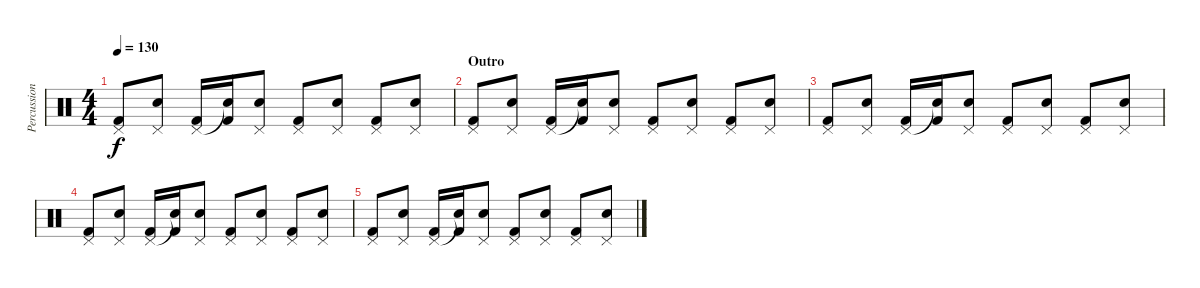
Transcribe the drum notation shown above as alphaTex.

\track ("Percussion" "Percussion") {instrument percussion}
\staff {score}
\articulation defaults
\ts (4 4)
\tempo 130
\clef neutral
\ks c
("Pedal Hi-Hat (hit)" "Kick (hit) 2").8{dy f} ("Pedal Hi-Hat (hit)" "Electric Snare (hit)").8 ("Pedal Hi-Hat (hit)" "Kick (hit) 2").16 ("Snare (hit)"{t} "Kick (hit) 2").16 ("Pedal Hi-Hat (hit)" "Electric Snare (hit)").8 ("Pedal Hi-Hat (hit)" "Kick (hit) 2").8 ("Pedal Hi-Hat (hit)" "Electric Snare (hit)").8 ("Pedal Hi-Hat (hit)" "Kick (hit) 2").8 ("Pedal Hi-Hat (hit)" "Electric Snare (hit)").8 |
\section ("" "Outro")
("Pedal Hi-Hat (hit)" "Kick (hit) 2").8{volume 0} ("Pedal Hi-Hat (hit)" "Electric Snare (hit)").8 ("Pedal Hi-Hat (hit)" "Kick (hit) 2").16 ("Snare (hit)"{t} "Kick (hit) 2").16 ("Pedal Hi-Hat (hit)" "Electric Snare (hit)").8 ("Pedal Hi-Hat (hit)" "Kick (hit) 2").8 ("Pedal Hi-Hat (hit)" "Electric Snare (hit)").8 ("Pedal Hi-Hat (hit)" "Kick (hit) 2").8 ("Pedal Hi-Hat (hit)" "Electric Snare (hit)").8 |
("Pedal Hi-Hat (hit)" "Kick (hit) 2").8 ("Pedal Hi-Hat (hit)" "Electric Snare (hit)").8 ("Pedal Hi-Hat (hit)" "Kick (hit) 2").16 ("Snare (hit)"{t} "Kick (hit) 2").16 ("Pedal Hi-Hat (hit)" "Electric Snare (hit)").8 ("Pedal Hi-Hat (hit)" "Kick (hit) 2").8 ("Pedal Hi-Hat (hit)" "Electric Snare (hit)").8 ("Pedal Hi-Hat (hit)" "Kick (hit) 2").8 ("Pedal Hi-Hat (hit)" "Electric Snare (hit)").8 |
("Pedal Hi-Hat (hit)" "Kick (hit) 2").8 ("Pedal Hi-Hat (hit)" "Electric Snare (hit)").8 ("Pedal Hi-Hat (hit)" "Kick (hit) 2").16 ("Snare (hit)"{t} "Kick (hit) 2").16 ("Pedal Hi-Hat (hit)" "Electric Snare (hit)").8 ("Pedal Hi-Hat (hit)" "Kick (hit) 2").8 ("Pedal Hi-Hat (hit)" "Electric Snare (hit)").8 ("Pedal Hi-Hat (hit)" "Kick (hit) 2").8 ("Pedal Hi-Hat (hit)" "Electric Snare (hit)").8 |
("Pedal Hi-Hat (hit)" "Kick (hit) 2").8 ("Pedal Hi-Hat (hit)" "Electric Snare (hit)").8 ("Pedal Hi-Hat (hit)" "Kick (hit) 2").16 ("Snare (hit)"{t} "Kick (hit) 2").16 ("Pedal Hi-Hat (hit)" "Electric Snare (hit)").8 ("Pedal Hi-Hat (hit)" "Kick (hit) 2").8 ("Pedal Hi-Hat (hit)" "Electric Snare (hit)").8 ("Pedal Hi-Hat (hit)" "Kick (hit) 2").8 ("Pedal Hi-Hat (hit)" "Electric Snare (hit)").8
